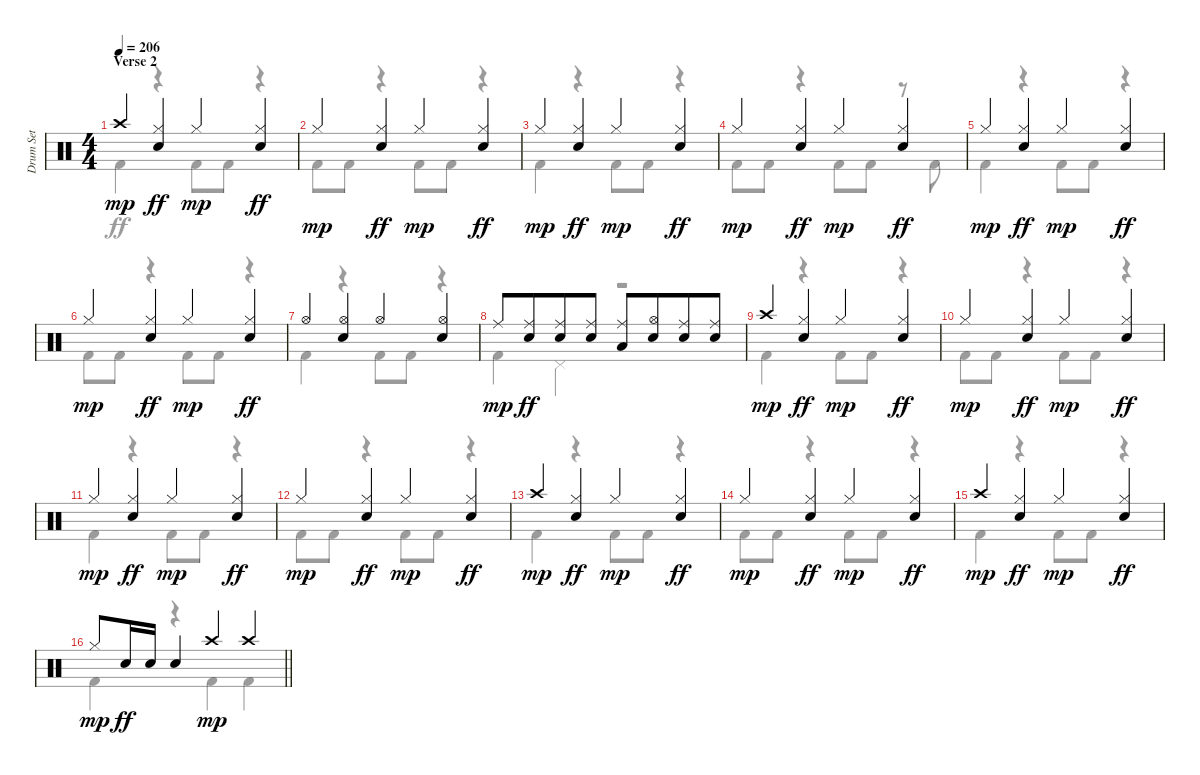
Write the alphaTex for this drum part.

\track ("Drum Set" "Drum Set") {instrument percussion}
\staff {score}
\articulation defaults
\voice
\ts (4 4)
\section ("" "Verse 2")
\tempo 206
\clef neutral
\ks c "Crash high (hit)".4{dy mp}
("Hi-Hat (closed)" "Electric Snare (hit)").4{dy ff} "Hi-Hat (closed)".4{dy mp} ("Hi-Hat (closed)" "Electric Snare (hit)").4{dy ff} |
"Hi-Hat (closed)".4{dy mp} ("Hi-Hat (closed)" "Electric Snare (hit)").4{dy ff} "Hi-Hat (closed)".4{dy mp} ("Hi-Hat (closed)" "Electric Snare (hit)").4{dy ff} |
"Hi-Hat (closed)".4{dy mp} ("Hi-Hat (closed)" "Electric Snare (hit)").4{dy ff} "Hi-Hat (closed)".4{dy mp} ("Hi-Hat (closed)" "Electric Snare (hit)").4{dy ff} |
"Hi-Hat (closed)".4{dy mp} ("Hi-Hat (closed)" "Electric Snare (hit)").4{dy ff} "Hi-Hat (closed)".4{dy mp} ("Hi-Hat (closed)" "Electric Snare (hit)").4{dy ff} |
"Hi-Hat (closed)".4{dy mp} ("Hi-Hat (closed)" "Electric Snare (hit)").4{dy ff} "Hi-Hat (closed)".4{dy mp} ("Hi-Hat (closed)" "Electric Snare (hit)").4{dy ff} |
"Hi-Hat (closed)".4{dy mp} ("Hi-Hat (closed)" "Electric Snare (hit)").4{dy ff} "Hi-Hat (closed)".4{dy mp} ("Hi-Hat (closed)" "Electric Snare (hit)").4{dy ff} |
"Hi-Hat (open)".4 ("Hi-Hat (open)" "Electric Snare (hit)").4 "Hi-Hat (open)".4 ("Hi-Hat (open)" "Electric Snare (hit)").4 |
"Ride (middle)".8{dy mp} ("Ride (middle)" "Electric Snare (hit)").8{dy ff beam merge} ("Ride (middle)" "Electric Snare (hit)").8 ("Ride (middle)" "Electric Snare (hit)").8{beam split} ("Ride (middle)" "Low Tom (hit)").8 ("Hi-Hat (open)" "Electric Snare (hit)").8{beam merge} ("Ride (middle)" "Electric Snare (hit)").8 ("Ride (middle)" "Electric Snare (hit)").8 |
"Crash high (hit)".4{dy mp} ("Hi-Hat (closed)" "Electric Snare (hit)").4{dy ff} "Hi-Hat (closed)".4{dy mp} ("Hi-Hat (closed)" "Electric Snare (hit)").4{dy ff} |
"Hi-Hat (closed)".4{dy mp} ("Hi-Hat (closed)" "Electric Snare (hit)").4{dy ff} "Hi-Hat (closed)".4{dy mp} ("Hi-Hat (closed)" "Electric Snare (hit)").4{dy ff} |
"Hi-Hat (closed)".4{dy mp} ("Hi-Hat (closed)" "Electric Snare (hit)").4{dy ff} "Hi-Hat (closed)".4{dy mp} ("Hi-Hat (closed)" "Electric Snare (hit)").4{dy ff} |
"Hi-Hat (closed)".4{dy mp} ("Hi-Hat (closed)" "Electric Snare (hit)").4{dy ff} "Hi-Hat (closed)".4{dy mp} ("Hi-Hat (closed)" "Electric Snare (hit)").4{dy ff} |
"Crash high (hit)".4{dy mp} ("Hi-Hat (closed)" "Electric Snare (hit)").4{dy ff} "Hi-Hat (closed)".4{dy mp} ("Hi-Hat (closed)" "Electric Snare (hit)").4{dy ff} |
"Hi-Hat (closed)".4{dy mp} ("Hi-Hat (closed)" "Electric Snare (hit)").4{dy ff} "Hi-Hat (closed)".4{dy mp} ("Hi-Hat (closed)" "Electric Snare (hit)").4{dy ff} |
"Crash high (hit)".4{dy mp} ("Hi-Hat (closed)" "Electric Snare (hit)").4{dy ff} "Hi-Hat (closed)".4{dy mp} ("Hi-Hat (closed)" "Electric Snare (hit)").4{dy ff} |
\barLineRight lightlight "Hi-Hat (closed)".8{dy mp} "Electric Snare (hit)".16{dy ff} "Electric Snare (hit)".16 "Electric Snare (hit)".4 "Crash high (hit)".4{dy mp} "Crash high (hit)".4
\voice
\clef neutral
\ottava regular
\simile none
\ks c "Kick (hit) 2".4{dy ff}
r.4 "Kick (hit) 2".8 "Kick (hit) 2".8 r.4 |
"Kick (hit) 2".8 "Kick (hit) 2".8 r.4 "Kick (hit) 2".8 "Kick (hit) 2".8 r.4 |
"Kick (hit) 2".4 r.4 "Kick (hit) 2".8 "Kick (hit) 2".8 r.4 |
"Kick (hit) 2".8 "Kick (hit) 2".8 r.4 "Kick (hit) 2".8 "Kick (hit) 2".8 r.8 "Kick (hit) 2".8 |
"Kick (hit) 2".4 r.4 "Kick (hit) 2".8 "Kick (hit) 2".8 r.4 |
"Kick (hit) 2".8 "Kick (hit) 2".8 r.4 "Kick (hit) 2".8 "Kick (hit) 2".8 r.4 |
"Kick (hit) 2".4 r.4 "Kick (hit) 2".8 "Kick (hit) 2".8 r.4 |
"Kick (hit) 2".4 "Pedal Hi-Hat (hit)".4 r.2 |
"Kick (hit) 2".4 r.4 "Kick (hit) 2".8 "Kick (hit) 2".8 r.4 |
"Kick (hit) 2".8 "Kick (hit) 2".8 r.4 "Kick (hit) 2".8 "Kick (hit) 2".8 r.4 |
"Kick (hit) 2".4 r.4 "Kick (hit) 2".8 "Kick (hit) 2".8 r.4 |
"Kick (hit) 2".8 "Kick (hit) 2".8 r.4 "Kick (hit) 2".8 "Kick (hit) 2".8 r.4 |
"Kick (hit) 2".4 r.4 "Kick (hit) 2".8 "Kick (hit) 2".8 r.4 |
"Kick (hit) 2".8 "Kick (hit) 2".8 r.4 "Kick (hit) 2".8 "Kick (hit) 2".8 r.4 |
"Kick (hit) 2".4 r.4 "Kick (hit) 2".8 "Kick (hit) 2".8 r.4 |
\barLineRight lightlight "Kick (hit) 2".4
r.4 "Kick (hit) 2".4 "Kick (hit) 2".4
